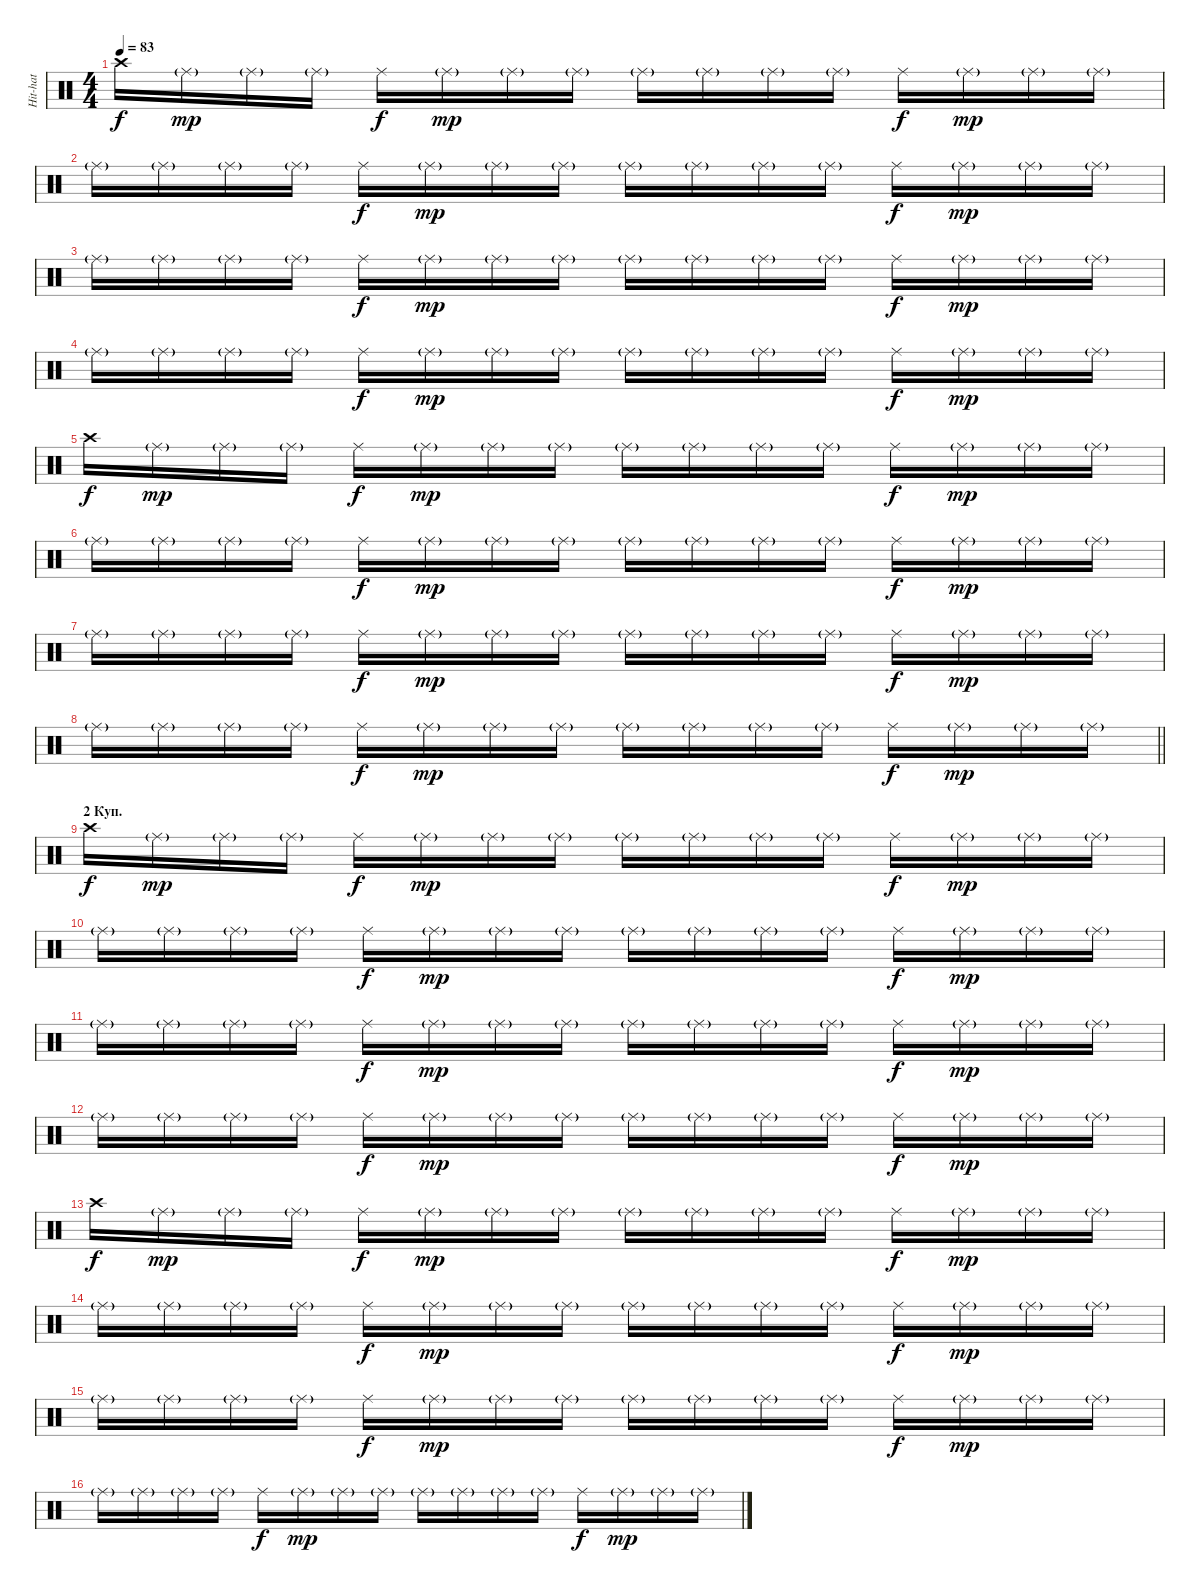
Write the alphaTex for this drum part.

\track ("Hit-hat" "Hit-hat") {instrument percussion}
\staff {score}
\articulation defaults
\ts (4 4)
\tempo 83
\clef neutral
\ks c "Crash high (hit)".16{dy f} "Ride (middle)"{g}.16{dy mp} "Ride (middle)"{g}.16 "Ride (middle)"{g}.16 "Ride (middle)".16{dy f} "Ride (middle)"{g}.16{dy mp} "Ride (middle)"{g}.16 "Ride (middle)"{g}.16 "Ride (middle)"{g}.16 "Ride (middle)"{g}.16 "Ride (middle)"{g}.16 "Ride (middle)"{g}.16 "Ride (middle)".16{dy f} "Ride (middle)"{g}.16{dy mp} "Ride (middle)"{g}.16 "Ride (middle)"{g}.16
|
"Ride (middle)"{g}.16 "Ride (middle)"{g}.16 "Ride (middle)"{g}.16 "Ride (middle)"{g}.16 "Ride (middle)".16{dy f} "Ride (middle)"{g}.16{dy mp} "Ride (middle)"{g}.16 "Ride (middle)"{g}.16 "Ride (middle)"{g}.16 "Ride (middle)"{g}.16 "Ride (middle)"{g}.16 "Ride (middle)"{g}.16 "Ride (middle)".16{dy f} "Ride (middle)"{g}.16{dy mp} "Ride (middle)"{g}.16 "Ride (middle)"{g}.16 |
"Ride (middle)"{g}.16 "Ride (middle)"{g}.16 "Ride (middle)"{g}.16 "Ride (middle)"{g}.16 "Ride (middle)".16{dy f} "Ride (middle)"{g}.16{dy mp} "Ride (middle)"{g}.16 "Ride (middle)"{g}.16 "Ride (middle)"{g}.16 "Ride (middle)"{g}.16 "Ride (middle)"{g}.16 "Ride (middle)"{g}.16 "Ride (middle)".16{dy f} "Ride (middle)"{g}.16{dy mp} "Ride (middle)"{g}.16 "Ride (middle)"{g}.16 |
"Ride (middle)"{g}.16 "Ride (middle)"{g}.16 "Ride (middle)"{g}.16 "Ride (middle)"{g}.16 "Ride (middle)".16{dy f} "Ride (middle)"{g}.16{dy mp} "Ride (middle)"{g}.16 "Ride (middle)"{g}.16 "Ride (middle)"{g}.16 "Ride (middle)"{g}.16 "Ride (middle)"{g}.16 "Ride (middle)"{g}.16 "Ride (middle)".16{dy f} "Ride (middle)"{g}.16{dy mp} "Ride (middle)"{g}.16 "Ride (middle)"{g}.16 |
"Crash high (hit)".16{dy f} "Ride (middle)"{g}.16{dy mp} "Ride (middle)"{g}.16 "Ride (middle)"{g}.16 "Ride (middle)".16{dy f} "Ride (middle)"{g}.16{dy mp} "Ride (middle)"{g}.16 "Ride (middle)"{g}.16 "Ride (middle)"{g}.16 "Ride (middle)"{g}.16 "Ride (middle)"{g}.16 "Ride (middle)"{g}.16 "Ride (middle)".16{dy f} "Ride (middle)"{g}.16{dy mp} "Ride (middle)"{g}.16 "Ride (middle)"{g}.16 |
"Ride (middle)"{g}.16 "Ride (middle)"{g}.16 "Ride (middle)"{g}.16 "Ride (middle)"{g}.16 "Ride (middle)".16{dy f} "Ride (middle)"{g}.16{dy mp} "Ride (middle)"{g}.16 "Ride (middle)"{g}.16 "Ride (middle)"{g}.16 "Ride (middle)"{g}.16 "Ride (middle)"{g}.16 "Ride (middle)"{g}.16 "Ride (middle)".16{dy f} "Ride (middle)"{g}.16{dy mp} "Ride (middle)"{g}.16 "Ride (middle)"{g}.16 |
"Ride (middle)"{g}.16 "Ride (middle)"{g}.16 "Ride (middle)"{g}.16 "Ride (middle)"{g}.16 "Ride (middle)".16{dy f} "Ride (middle)"{g}.16{dy mp} "Ride (middle)"{g}.16 "Ride (middle)"{g}.16 "Ride (middle)"{g}.16 "Ride (middle)"{g}.16 "Ride (middle)"{g}.16 "Ride (middle)"{g}.16 "Ride (middle)".16{dy f} "Ride (middle)"{g}.16{dy mp} "Ride (middle)"{g}.16 "Ride (middle)"{g}.16 |
\barLineRight lightlight "Ride (middle)"{g}.16 "Ride (middle)"{g}.16 "Ride (middle)"{g}.16 "Ride (middle)"{g}.16 "Ride (middle)".16{dy f} "Ride (middle)"{g}.16{dy mp} "Ride (middle)"{g}.16 "Ride (middle)"{g}.16 "Ride (middle)"{g}.16 "Ride (middle)"{g}.16 "Ride (middle)"{g}.16 "Ride (middle)"{g}.16 "Ride (middle)".16{dy f} "Ride (middle)"{g}.16{dy mp} "Ride (middle)"{g}.16 "Ride (middle)"{g}.16
|
\section ("" "2 Куп.")
"Crash high (hit)".16{dy f} "Ride (middle)"{g}.16{dy mp} "Ride (middle)"{g}.16 "Ride (middle)"{g}.16 "Ride (middle)".16{dy f} "Ride (middle)"{g}.16{dy mp} "Ride (middle)"{g}.16 "Ride (middle)"{g}.16 "Ride (middle)"{g}.16 "Ride (middle)"{g}.16 "Ride (middle)"{g}.16 "Ride (middle)"{g}.16 "Ride (middle)".16{dy f} "Ride (middle)"{g}.16{dy mp} "Ride (middle)"{g}.16 "Ride (middle)"{g}.16 |
"Ride (middle)"{g}.16 "Ride (middle)"{g}.16 "Ride (middle)"{g}.16 "Ride (middle)"{g}.16 "Ride (middle)".16{dy f} "Ride (middle)"{g}.16{dy mp} "Ride (middle)"{g}.16 "Ride (middle)"{g}.16 "Ride (middle)"{g}.16 "Ride (middle)"{g}.16 "Ride (middle)"{g}.16 "Ride (middle)"{g}.16 "Ride (middle)".16{dy f} "Ride (middle)"{g}.16{dy mp} "Ride (middle)"{g}.16 "Ride (middle)"{g}.16 |
"Ride (middle)"{g}.16 "Ride (middle)"{g}.16 "Ride (middle)"{g}.16 "Ride (middle)"{g}.16 "Ride (middle)".16{dy f} "Ride (middle)"{g}.16{dy mp} "Ride (middle)"{g}.16 "Ride (middle)"{g}.16 "Ride (middle)"{g}.16 "Ride (middle)"{g}.16 "Ride (middle)"{g}.16 "Ride (middle)"{g}.16 "Ride (middle)".16{dy f} "Ride (middle)"{g}.16{dy mp} "Ride (middle)"{g}.16 "Ride (middle)"{g}.16 |
"Ride (middle)"{g}.16 "Ride (middle)"{g}.16 "Ride (middle)"{g}.16 "Ride (middle)"{g}.16 "Ride (middle)".16{dy f} "Ride (middle)"{g}.16{dy mp} "Ride (middle)"{g}.16 "Ride (middle)"{g}.16 "Ride (middle)"{g}.16 "Ride (middle)"{g}.16 "Ride (middle)"{g}.16 "Ride (middle)"{g}.16 "Ride (middle)".16{dy f} "Ride (middle)"{g}.16{dy mp} "Ride (middle)"{g}.16 "Ride (middle)"{g}.16 |
"Crash high (hit)".16{dy f} "Ride (middle)"{g}.16{dy mp} "Ride (middle)"{g}.16 "Ride (middle)"{g}.16 "Ride (middle)".16{dy f} "Ride (middle)"{g}.16{dy mp} "Ride (middle)"{g}.16 "Ride (middle)"{g}.16 "Ride (middle)"{g}.16 "Ride (middle)"{g}.16 "Ride (middle)"{g}.16 "Ride (middle)"{g}.16 "Ride (middle)".16{dy f} "Ride (middle)"{g}.16{dy mp} "Ride (middle)"{g}.16 "Ride (middle)"{g}.16 |
"Ride (middle)"{g}.16 "Ride (middle)"{g}.16 "Ride (middle)"{g}.16 "Ride (middle)"{g}.16 "Ride (middle)".16{dy f} "Ride (middle)"{g}.16{dy mp} "Ride (middle)"{g}.16 "Ride (middle)"{g}.16 "Ride (middle)"{g}.16 "Ride (middle)"{g}.16 "Ride (middle)"{g}.16 "Ride (middle)"{g}.16 "Ride (middle)".16{dy f} "Ride (middle)"{g}.16{dy mp} "Ride (middle)"{g}.16 "Ride (middle)"{g}.16 |
"Ride (middle)"{g}.16 "Ride (middle)"{g}.16 "Ride (middle)"{g}.16 "Ride (middle)"{g}.16 "Ride (middle)".16{dy f} "Ride (middle)"{g}.16{dy mp} "Ride (middle)"{g}.16 "Ride (middle)"{g}.16 "Ride (middle)"{g}.16 "Ride (middle)"{g}.16 "Ride (middle)"{g}.16 "Ride (middle)"{g}.16 "Ride (middle)".16{dy f} "Ride (middle)"{g}.16{dy mp} "Ride (middle)"{g}.16 "Ride (middle)"{g}.16 |
"Ride (middle)"{g}.16 "Ride (middle)"{g}.16 "Ride (middle)"{g}.16 "Ride (middle)"{g}.16 "Ride (middle)".16{dy f} "Ride (middle)"{g}.16{dy mp} "Ride (middle)"{g}.16 "Ride (middle)"{g}.16 "Ride (middle)"{g}.16 "Ride (middle)"{g}.16 "Ride (middle)"{g}.16 "Ride (middle)"{g}.16 "Ride (middle)".16{dy f} "Ride (middle)"{g}.16{dy mp} "Ride (middle)"{g}.16 "Ride (middle)"{g}.16
